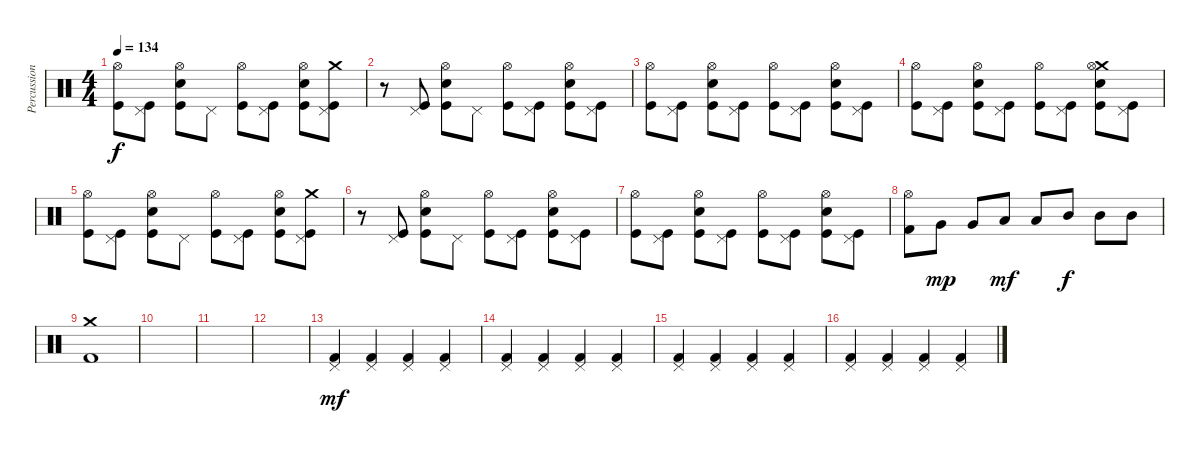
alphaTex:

\track ("Percussion" "Percussion") {instrument percussion}
\staff {score}
\articulation defaults
\ts (4 4)
\tempo 134
\clef neutral
\ks c
("Hi-Hat (open)" "Kick (hit)").8{dy f} ("Pedal Hi-Hat (hit)" "Kick (hit)").8 ("Electric Snare (hit)" "Hi-Hat (open)" "Kick (hit)").8 "Pedal Hi-Hat (hit)".8 ("Hi-Hat (open)" "Kick (hit)").8 ("Pedal Hi-Hat (hit)" "Kick (hit)").8 ("Electric Snare (hit)" "Hi-Hat (open)" "Kick (hit)").8 ("Pedal Hi-Hat (hit)" "Crash medium (hit)" "Kick (hit)").8 |
r.8 ("Pedal Hi-Hat (hit)" "Kick (hit)").8 ("Electric Snare (hit)" "Hi-Hat (open)" "Kick (hit)").8 "Pedal Hi-Hat (hit)".8 ("Hi-Hat (open)" "Kick (hit)").8 ("Pedal Hi-Hat (hit)" "Kick (hit)").8 ("Electric Snare (hit)" "Hi-Hat (open)" "Kick (hit)").8 ("Pedal Hi-Hat (hit)" "Kick (hit)").8 |
("Hi-Hat (open)" "Kick (hit)").8 ("Pedal Hi-Hat (hit)" "Kick (hit)").8 ("Electric Snare (hit)" "Hi-Hat (open)" "Kick (hit)").8 ("Pedal Hi-Hat (hit)" "Kick (hit)").8 ("Hi-Hat (open)" "Kick (hit)").8 ("Pedal Hi-Hat (hit)" "Kick (hit)").8 ("Electric Snare (hit)" "Hi-Hat (open)" "Kick (hit)").8 ("Pedal Hi-Hat (hit)" "Kick (hit)").8 |
("Hi-Hat (open)" "Kick (hit)").8 ("Pedal Hi-Hat (hit)" "Kick (hit)").8 ("Electric Snare (hit)" "Hi-Hat (open)" "Kick (hit)").8 ("Pedal Hi-Hat (hit)" "Kick (hit)").8 ("Hi-Hat (open)" "Kick (hit)").8 ("Pedal Hi-Hat (hit)" "Kick (hit)").8 ("Electric Snare (hit)" "Crash medium (hit)" "Hi-Hat (open)" "Kick (hit)").8 ("Pedal Hi-Hat (hit)" "Kick (hit)").8 |
("Hi-Hat (open)" "Kick (hit)").8 ("Pedal Hi-Hat (hit)" "Kick (hit)").8 ("Electric Snare (hit)" "Hi-Hat (open)" "Kick (hit)").8 "Pedal Hi-Hat (hit)".8 ("Hi-Hat (open)" "Kick (hit)").8 ("Pedal Hi-Hat (hit)" "Kick (hit)").8 ("Electric Snare (hit)" "Hi-Hat (open)" "Kick (hit)").8 ("Pedal Hi-Hat (hit)" "Crash medium (hit)" "Kick (hit)").8 |
r.8 ("Pedal Hi-Hat (hit)" "Kick (hit)").8 ("Electric Snare (hit)" "Hi-Hat (open)" "Kick (hit)").8 "Pedal Hi-Hat (hit)".8 ("Hi-Hat (open)" "Kick (hit)").8 ("Pedal Hi-Hat (hit)" "Kick (hit)").8 ("Electric Snare (hit)" "Hi-Hat (open)" "Kick (hit)").8 ("Pedal Hi-Hat (hit)" "Kick (hit)").8 |
("Hi-Hat (open)" "Kick (hit)").8 ("Pedal Hi-Hat (hit)" "Kick (hit)").8 ("Electric Snare (hit)" "Hi-Hat (open)" "Kick (hit)").8 ("Pedal Hi-Hat (hit)" "Kick (hit)").8 ("Hi-Hat (open)" "Kick (hit)").8 ("Pedal Hi-Hat (hit)" "Kick (hit)").8 ("Electric Snare (hit)" "Hi-Hat (open)" "Kick (hit)").8 ("Pedal Hi-Hat (hit)" "Kick (hit)").8 |
("Kick (hit) 2" "Hi-Hat (open)").8 "Very Low Tom (hit)".8{dy mp} "Very Low Tom (hit)".8 "Low Tom (hit)".8{dy mf} "Low Tom (hit)".8 "Mid Tom (hit)".8{dy f} "Mid Tom (hit)".8 "Mid Tom (hit)".8 |
("Kick (hit) 2" "Crash medium (hit)").1 |
|
|
|
("Kick (hit) 2" "Pedal Hi-Hat (hit)").4{dy mf} ("Kick (hit) 2" "Pedal Hi-Hat (hit)").4 ("Kick (hit) 2" "Pedal Hi-Hat (hit)").4 ("Kick (hit) 2" "Pedal Hi-Hat (hit)").4 |
("Kick (hit) 2" "Pedal Hi-Hat (hit)").4 ("Kick (hit) 2" "Pedal Hi-Hat (hit)").4 ("Kick (hit) 2" "Pedal Hi-Hat (hit)").4 ("Kick (hit) 2" "Pedal Hi-Hat (hit)").4 |
("Kick (hit) 2" "Pedal Hi-Hat (hit)").4 ("Kick (hit) 2" "Pedal Hi-Hat (hit)").4 ("Kick (hit) 2" "Pedal Hi-Hat (hit)").4 ("Kick (hit) 2" "Pedal Hi-Hat (hit)").4 |
("Kick (hit) 2" "Pedal Hi-Hat (hit)").4 ("Kick (hit) 2" "Pedal Hi-Hat (hit)").4 ("Kick (hit) 2" "Pedal Hi-Hat (hit)").4 ("Kick (hit) 2" "Pedal Hi-Hat (hit)").4
